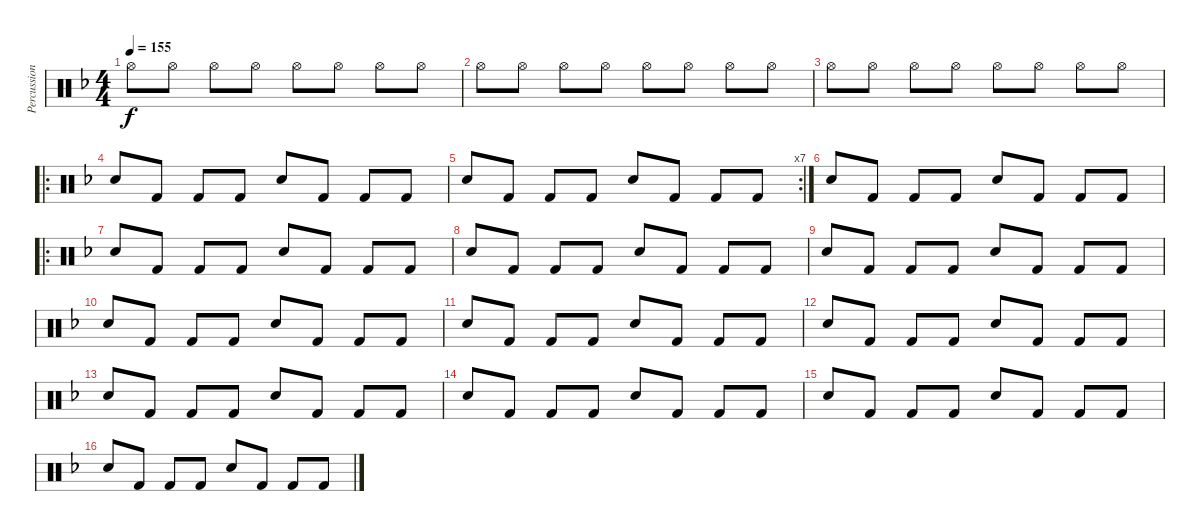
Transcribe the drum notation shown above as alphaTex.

\track ("Percussions" "Percussion") {instrument percussion}
\staff {score}
\articulation defaults
\ts (4 4)
\tempo 155
\clef neutral
\ks f "Hi-Hat (open)".8{dy f} "Hi-Hat (open)".8 "Hi-Hat (open)".8 "Hi-Hat (open)".8 "Hi-Hat (open)".8 "Hi-Hat (open)".8 "Hi-Hat (open)".8 "Hi-Hat (open)".8
|
"Hi-Hat (open)".8 "Hi-Hat (open)".8 "Hi-Hat (open)".8 "Hi-Hat (open)".8 "Hi-Hat (open)".8 "Hi-Hat (open)".8 "Hi-Hat (open)".8 "Hi-Hat (open)".8 |
"Hi-Hat (open)".8 "Hi-Hat (open)".8 "Hi-Hat (open)".8 "Hi-Hat (open)".8 "Hi-Hat (open)".8 "Hi-Hat (open)".8 "Hi-Hat (open)".8 "Hi-Hat (open)".8 |
\ro "Snare (hit) 2".8 "Kick (hit) 2".8 "Kick (hit) 2".8 "Kick (hit) 2".8 "Snare (hit) 2".8 "Kick (hit) 2".8 "Kick (hit) 2".8 "Kick (hit) 2".8
|
\rc 7 "Snare (hit) 2".8 "Kick (hit) 2".8 "Kick (hit) 2".8 "Kick (hit) 2".8 "Snare (hit) 2".8 "Kick (hit) 2".8 "Kick (hit) 2".8 "Kick (hit) 2".8
|
"Snare (hit) 2".8 "Kick (hit) 2".8 "Kick (hit) 2".8 "Kick (hit) 2".8 "Snare (hit) 2".8 "Kick (hit) 2".8 "Kick (hit) 2".8 "Kick (hit) 2".8 |
\ro "Snare (hit) 2".8 "Kick (hit) 2".8 "Kick (hit) 2".8 "Kick (hit) 2".8 "Snare (hit) 2".8 "Kick (hit) 2".8 "Kick (hit) 2".8 "Kick (hit) 2".8
|
"Snare (hit) 2".8 "Kick (hit) 2".8 "Kick (hit) 2".8 "Kick (hit) 2".8 "Snare (hit) 2".8 "Kick (hit) 2".8 "Kick (hit) 2".8 "Kick (hit) 2".8 |
"Snare (hit) 2".8 "Kick (hit) 2".8 "Kick (hit) 2".8 "Kick (hit) 2".8 "Snare (hit) 2".8 "Kick (hit) 2".8 "Kick (hit) 2".8 "Kick (hit) 2".8 |
"Snare (hit) 2".8 "Kick (hit) 2".8 "Kick (hit) 2".8 "Kick (hit) 2".8 "Snare (hit) 2".8 "Kick (hit) 2".8 "Kick (hit) 2".8 "Kick (hit) 2".8 |
"Snare (hit) 2".8 "Kick (hit) 2".8 "Kick (hit) 2".8 "Kick (hit) 2".8 "Snare (hit) 2".8 "Kick (hit) 2".8 "Kick (hit) 2".8 "Kick (hit) 2".8 |
"Snare (hit) 2".8 "Kick (hit) 2".8 "Kick (hit) 2".8 "Kick (hit) 2".8 "Snare (hit) 2".8 "Kick (hit) 2".8 "Kick (hit) 2".8 "Kick (hit) 2".8 |
"Snare (hit) 2".8 "Kick (hit) 2".8 "Kick (hit) 2".8 "Kick (hit) 2".8 "Snare (hit) 2".8 "Kick (hit) 2".8 "Kick (hit) 2".8 "Kick (hit) 2".8 |
"Snare (hit) 2".8 "Kick (hit) 2".8 "Kick (hit) 2".8 "Kick (hit) 2".8 "Snare (hit) 2".8 "Kick (hit) 2".8 "Kick (hit) 2".8 "Kick (hit) 2".8 |
"Snare (hit) 2".8 "Kick (hit) 2".8 "Kick (hit) 2".8 "Kick (hit) 2".8 "Snare (hit) 2".8 "Kick (hit) 2".8 "Kick (hit) 2".8 "Kick (hit) 2".8 |
"Snare (hit) 2".8 "Kick (hit) 2".8 "Kick (hit) 2".8 "Kick (hit) 2".8 "Snare (hit) 2".8 "Kick (hit) 2".8 "Kick (hit) 2".8 "Kick (hit) 2".8
